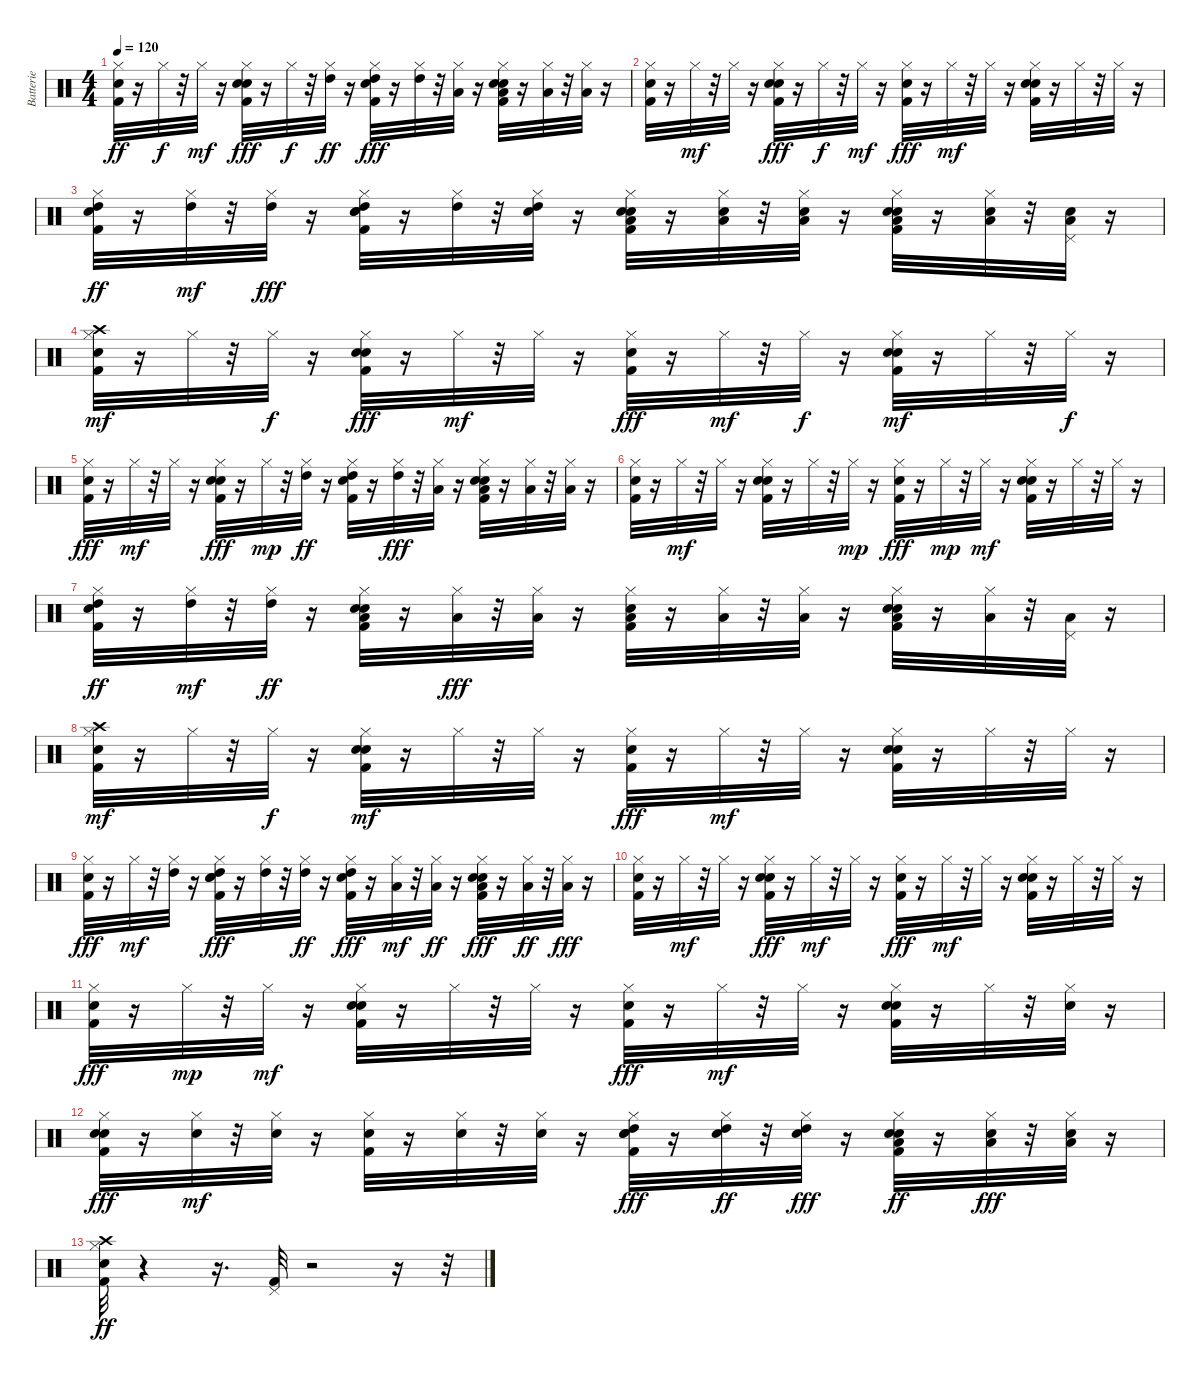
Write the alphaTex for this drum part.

\track ("Batterie" "Batterie") {instrument percussion}
\staff {score}
\articulation defaults
\ts (4 4)
\tempo 120
\clef neutral
\ks c
("Kick (hit) 2" "Hi-Hat (closed)" "Hand Clap (hit)").32{dy ff} r.16 "Hi-Hat (closed)".32{dy f} r.32 "Hi-Hat (closed)".32{dy mf} r.16 ("Kick (hit) 2" "Snare (hit) 2" "Hi-Hat (closed)" "Hand Clap (hit)").32{dy fff} r.16 "Hi-Hat (closed)".32{dy f} r.32 ("Hi-Hat (closed)" "High Tom (hit)").32{dy ff} r.16 ("Kick (hit) 2" "Hi-Hat (closed)" "Hand Clap (hit)" "High Tom (hit)").32{dy fff} r.16 ("Hi-Hat (closed)" "High Tom (hit)").32 r.32 ("Hi-Hat (closed)" "Low Tom (hit)").32 r.16 ("Kick (hit) 2" "Snare (hit) 2" "Hi-Hat (closed)" "Hand Clap (hit)" "Low Tom (hit)").32 r.16 ("Hi-Hat (closed)" "Low Tom (hit)").32 r.32 ("Hi-Hat (closed)" "Low Floor Tom (hit)").32 r.16 |
("Kick (hit) 2" "Hi-Hat (closed)" "Hand Clap (hit)").32 r.16 "Hi-Hat (closed)".32{dy mf} r.32 "Hi-Hat (closed)".32 r.16 ("Kick (hit) 2" "Snare (hit) 2" "Hi-Hat (closed)" "Hand Clap (hit)").32{dy fff} r.16 "Hi-Hat (closed)".32{dy f} r.32 "Hi-Hat (closed)".32{dy mf} r.16 ("Kick (hit) 2" "Hi-Hat (closed)" "Hand Clap (hit)").32{dy fff} r.16 "Hi-Hat (closed)".32{dy mf} r.32 "Hi-Hat (closed)".32 r.16 ("Kick (hit) 2" "Snare (hit) 2" "Hi-Hat (closed)" "Hand Clap (hit)").32 r.16 "Hi-Hat (closed)".32 r.32 "Hi-Hat (closed)".32 r.16 |
("Kick (hit) 2" "Hi-Hat (closed)" "Hand Clap (hit)" "High Tom (hit)").32{dy ff} r.16 ("Hi-Hat (closed)" "High Tom (hit)").32{dy mf} r.32 ("Hi-Hat (closed)" "High Tom (hit)").32{dy fff} r.16 ("Kick (hit) 2" "Snare (hit) 2" "Hi-Hat (closed)" "Hand Clap (hit)" "High Tom (hit)").32 r.16 ("Hi-Hat (closed)" "High Tom (hit)").32 r.32 ("Snare (hit) 2" "Hi-Hat (closed)" "High Tom (hit)").32 r.16 ("Kick (hit) 2" "Snare (hit) 2" "Hi-Hat (closed)" "Hand Clap (hit)" "Low Tom (hit)").32 r.16 ("Snare (hit) 2" "Hi-Hat (closed)" "Low Tom (hit)").32 r.32 ("Snare (hit) 2" "Hi-Hat (closed)" "Low Tom (hit)").32 r.16 ("Kick (hit) 2" "Snare (hit) 2" "Hi-Hat (closed)" "Hand Clap (hit)" "Low Floor Tom (hit)").32 r.16 ("Snare (hit) 2" "Hi-Hat (closed)" "Low Floor Tom (hit)").32 r.32 ("Snare (hit) 2" "Pedal Hi-Hat (hit)" "Low Floor Tom (hit)").32 r.16 |
("Kick (hit) 2" "Hi-Hat (closed)" "Hand Clap (hit)" "Crash high (hit)").32{dy mf} r.16 "Hi-Hat (closed)".32 r.32 "Hi-Hat (closed)".32{dy f} r.16 ("Kick (hit) 2" "Snare (hit) 2" "Hi-Hat (closed)" "Hand Clap (hit)").32{dy fff} r.16 "Hi-Hat (closed)".32{dy mf} r.32 "Hi-Hat (closed)".32 r.16 ("Kick (hit) 2" "Hi-Hat (closed)" "Hand Clap (hit)").32{dy fff} r.16 "Hi-Hat (closed)".32{dy mf} r.32 "Hi-Hat (closed)".32{dy f} r.16 ("Kick (hit) 2" "Snare (hit) 2" "Hi-Hat (closed)" "Hand Clap (hit)").32{dy mf} r.16 "Hi-Hat (closed)".32 r.32 "Hi-Hat (closed)".32{dy f} r.16 |
("Kick (hit) 2" "Hi-Hat (closed)" "Hand Clap (hit)").32{dy fff} r.16 "Hi-Hat (closed)".32{dy mf} r.32 "Hi-Hat (closed)".32 r.16 ("Kick (hit) 2" "Snare (hit) 2" "Hi-Hat (closed)" "Hand Clap (hit)").32{dy fff} r.16 "Hi-Hat (closed)".32{dy mp} r.32 ("Hi-Hat (closed)" "High Tom (hit)").32{dy ff} r.16 ("Kick (hit) 2" "Hi-Hat (closed)" "Hand Clap (hit)" "High Tom (hit)").32 r.16 ("Hi-Hat (closed)" "High Tom (hit)").32{dy fff} r.32 ("Hi-Hat (closed)" "Low Tom (hit)").32 r.16 ("Kick (hit) 2" "Snare (hit) 2" "Hi-Hat (closed)" "Hand Clap (hit)" "Low Tom (hit)").32 r.16 ("Hi-Hat (closed)" "Low Tom (hit)").32 r.32 ("Hi-Hat (closed)" "Low Floor Tom (hit)").32 r.16 |
("Kick (hit) 2" "Hi-Hat (closed)" "Hand Clap (hit)").32 r.16 "Hi-Hat (closed)".32{dy mf} r.32 "Hi-Hat (closed)".32 r.16 ("Kick (hit) 2" "Snare (hit) 2" "Hi-Hat (closed)" "Hand Clap (hit)").32 r.16 "Hi-Hat (closed)".32 r.32 "Hi-Hat (closed)".32{dy mp} r.16 ("Kick (hit) 2" "Hi-Hat (closed)" "Hand Clap (hit)").32{dy fff} r.16 "Hi-Hat (closed)".32{dy mp} r.32 "Hi-Hat (closed)".32{dy mf} r.16 ("Kick (hit) 2" "Snare (hit) 2" "Hi-Hat (closed)" "Hand Clap (hit)").32 r.16 "Hi-Hat (closed)".32 r.32 "Hi-Hat (closed)".32 r.16 |
("Kick (hit) 2" "Hi-Hat (closed)" "Hand Clap (hit)" "High Tom (hit)").32{dy ff} r.16 ("Hi-Hat (closed)" "High Tom (hit)").32{dy mf} r.32 ("Hi-Hat (closed)" "High Tom (hit)").32{dy ff} r.16 ("Kick (hit) 2" "Snare (hit) 2" "Hi-Hat (closed)" "Hand Clap (hit)" "Low Tom (hit)").32 r.16 ("Hi-Hat (closed)" "Low Tom (hit)").32{dy fff} r.32 ("Hi-Hat (closed)" "Low Tom (hit)").32 r.16 ("Kick (hit) 2" "Hi-Hat (closed)" "Hand Clap (hit)" "Low Tom (hit)").32 r.16 ("Hi-Hat (closed)" "Low Floor Tom (hit)").32 r.32 ("Hi-Hat (closed)" "Low Floor Tom (hit)").32 r.16 ("Kick (hit) 2" "Snare (hit) 2" "Hi-Hat (closed)" "Hand Clap (hit)" "Low Floor Tom (hit)").32 r.16 ("Hi-Hat (closed)" "Low Floor Tom (hit)").32 r.32 ("Pedal Hi-Hat (hit)" "Low Floor Tom (hit)").32 r.16 |
("Kick (hit) 2" "Hi-Hat (closed)" "Hand Clap (hit)" "Crash high (hit)").32{dy mf} r.16 "Hi-Hat (closed)".32 r.32 "Hi-Hat (closed)".32{dy f} r.16 ("Kick (hit) 2" "Snare (hit) 2" "Hi-Hat (closed)" "Hand Clap (hit)").32{dy mf} r.16 "Hi-Hat (closed)".32 r.32 "Hi-Hat (closed)".32 r.16 ("Kick (hit) 2" "Hi-Hat (closed)" "Hand Clap (hit)").32{dy fff} r.16 "Hi-Hat (closed)".32{dy mf} r.32 "Hi-Hat (closed)".32 r.16 ("Kick (hit) 2" "Snare (hit) 2" "Hi-Hat (closed)" "Hand Clap (hit)").32 r.16 "Hi-Hat (closed)".32 r.32 "Hi-Hat (closed)".32 r.16 |
("Kick (hit) 2" "Hi-Hat (closed)" "Hand Clap (hit)").32{dy fff} r.16 "Hi-Hat (closed)".32{dy mf} r.32 ("Hi-Hat (closed)" "High Tom (hit)").32 r.16 ("Kick (hit) 2" "Snare (hit) 2" "Hi-Hat (closed)" "Hand Clap (hit)" "High Tom (hit)").32{dy fff} r.16 ("Hi-Hat (closed)" "High Tom (hit)").32 r.32 ("Hi-Hat (closed)" "High Tom (hit)").32{dy ff} r.16 ("Kick (hit) 2" "Hi-Hat (closed)" "Hand Clap (hit)" "High Tom (hit)").32{dy fff} r.16 ("Hi-Hat (closed)" "Low Tom (hit)").32{dy mf} r.32 ("Hi-Hat (closed)" "Low Tom (hit)").32{dy ff} r.16 ("Kick (hit) 2" "Snare (hit) 2" "Hi-Hat (closed)" "Hand Clap (hit)" "Low Tom (hit)").32{dy fff} r.16 ("Hi-Hat (closed)" "Low Floor Tom (hit)").32{dy ff} r.32 ("Hi-Hat (closed)" "Low Floor Tom (hit)").32{dy fff} r.16 |
("Kick (hit) 2" "Hi-Hat (closed)" "Hand Clap (hit)").32 r.16 "Hi-Hat (closed)".32{dy mf} r.32 "Hi-Hat (closed)".32 r.16 ("Kick (hit) 2" "Snare (hit) 2" "Hi-Hat (closed)" "Hand Clap (hit)").32{dy fff} r.16 "Hi-Hat (closed)".32{dy mf} r.32 "Hi-Hat (closed)".32 r.16 ("Kick (hit) 2" "Hi-Hat (closed)" "Hand Clap (hit)").32{dy fff} r.16 "Hi-Hat (closed)".32{dy mf} r.32 "Hi-Hat (closed)".32 r.16 ("Kick (hit) 2" "Snare (hit) 2" "Hi-Hat (closed)" "Hand Clap (hit)").32 r.16 "Hi-Hat (closed)".32 r.32 "Hi-Hat (closed)".32 r.16 |
("Kick (hit) 2" "Hi-Hat (closed)" "Hand Clap (hit)").32{dy fff} r.16 "Hi-Hat (closed)".32{dy mp} r.32 "Hi-Hat (closed)".32{dy mf} r.16 ("Kick (hit) 2" "Snare (hit) 2" "Hi-Hat (closed)" "Hand Clap (hit)").32 r.16 "Hi-Hat (closed)".32 r.32 "Hi-Hat (closed)".32 r.16 ("Kick (hit) 2" "Hi-Hat (closed)" "Hand Clap (hit)").32{dy fff} r.16 "Hi-Hat (closed)".32{dy mf} r.32 "Hi-Hat (closed)".32 r.16 ("Kick (hit) 2" "Snare (hit) 2" "Hi-Hat (closed)" "Hand Clap (hit)").32 r.16 "Hi-Hat (closed)".32 r.32 ("Snare (hit) 2" "Hi-Hat (closed)").32 r.16 |
("Kick (hit) 2" "Snare (hit) 2" "Hi-Hat (closed)" "Hand Clap (hit)").32{dy fff} r.16 ("Snare (hit) 2" "Hi-Hat (closed)").32{dy mf} r.32 ("Snare (hit) 2" "Hi-Hat (closed)").32 r.16 ("Kick (hit) 2" "Snare (hit) 2" "Hi-Hat (closed)").32 r.16 ("Snare (hit) 2" "Hi-Hat (closed)").32 r.32 ("Snare (hit) 2" "Hi-Hat (closed)").32 r.16 ("Kick (hit) 2" "Snare (hit) 2" "Hi-Hat (closed)" "Hand Clap (hit)" "High Tom (hit)").32{dy fff} r.16 ("Snare (hit) 2" "Hi-Hat (closed)" "High Tom (hit)").32{dy ff} r.32 ("Snare (hit) 2" "Hi-Hat (closed)" "High Tom (hit)").32{dy fff} r.16 ("Kick (hit) 2" "Snare (hit) 2" "Hi-Hat (closed)" "Hand Clap (hit)" "Low Tom (hit)").32{dy ff} r.16 ("Snare (hit) 2" "Hi-Hat (closed)" "Low Tom (hit)").32{dy fff} r.32 ("Snare (hit) 2" "Hi-Hat (closed)" "Low Floor Tom (hit)").32 r.16 |
("Kick (hit) 2" "Hi-Hat (closed)" "Hand Clap (hit)" "Crash high (hit)").32{dy ff} r.4 r.16{d} ("Kick (hit) 2" "Pedal Hi-Hat (hit)").32 r.2 r.16 r.32
